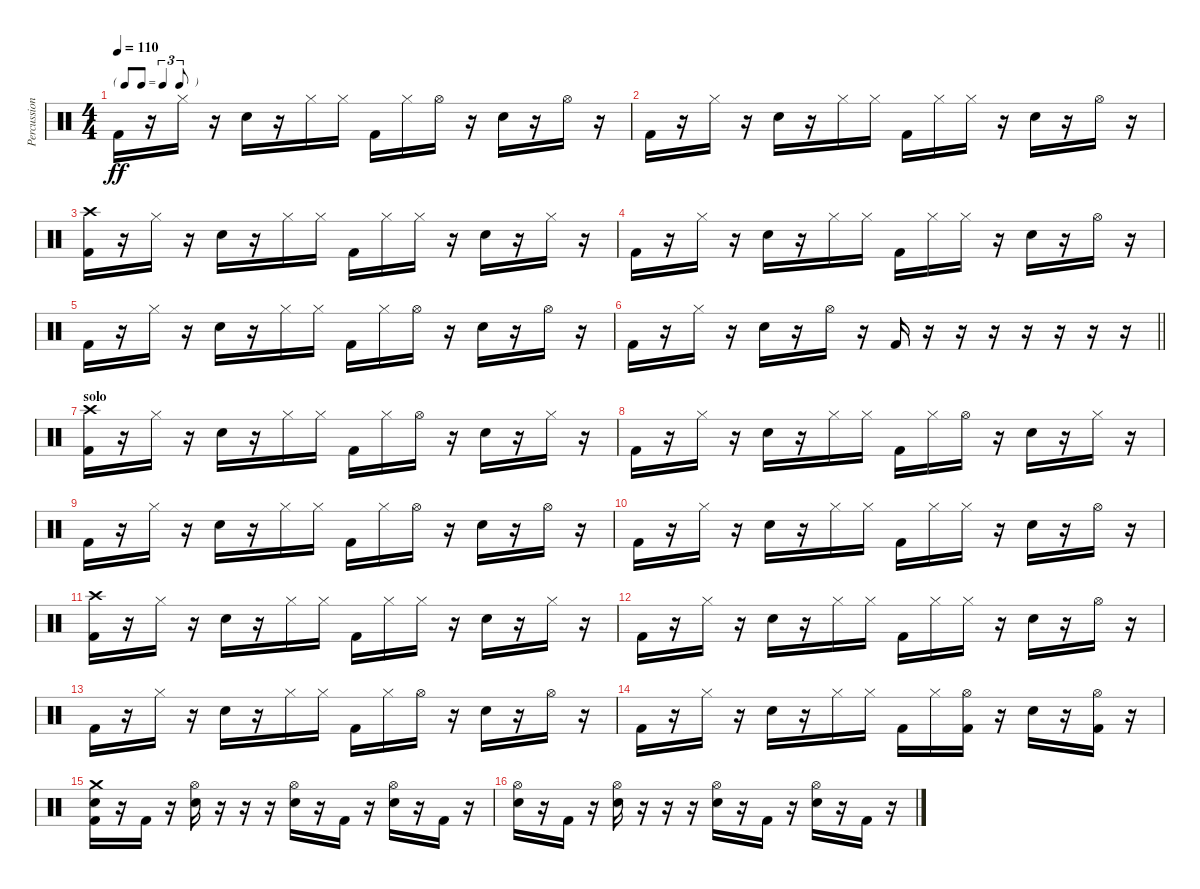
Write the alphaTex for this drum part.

\track ("Percussion" "Percussion") {instrument percussion}
\staff {score}
\articulation defaults
\ts (4 4)
\tf triplet8th
\tempo 110
\clef neutral
\ks c "Kick (hit) 2".16{dy ff}
r.16 "Hi-Hat (closed)".16 r.16 "Electric Snare (hit)".16 r.16 "Hi-Hat (closed)".16 "Hi-Hat (closed)".16 "Kick (hit) 2".16 "Hi-Hat (closed)".16 "Hi-Hat (open)".16 r.16 "Electric Snare (hit)".16 r.16 "Hi-Hat (open)".16 r.16 |
"Kick (hit) 2".16 r.16 "Hi-Hat (closed)".16 r.16 "Electric Snare (hit)".16 r.16 "Hi-Hat (closed)".16 "Hi-Hat (closed)".16 "Kick (hit) 2".16 "Hi-Hat (closed)".16 "Hi-Hat (closed)".16 r.16 "Electric Snare (hit)".16 r.16 "Hi-Hat (open)".16 r.16 |
("Crash high (hit)" "Kick (hit) 2").16 r.16 "Hi-Hat (closed)".16 r.16 "Electric Snare (hit)".16 r.16 "Hi-Hat (closed)".16 "Hi-Hat (closed)".16 "Kick (hit) 2".16 "Hi-Hat (closed)".16 "Hi-Hat (closed)".16 r.16 "Electric Snare (hit)".16 r.16 "Hi-Hat (closed)".16 r.16 |
"Kick (hit) 2".16 r.16 "Hi-Hat (closed)".16 r.16 "Electric Snare (hit)".16 r.16 "Hi-Hat (closed)".16 "Hi-Hat (closed)".16 "Kick (hit) 2".16 "Hi-Hat (closed)".16 "Hi-Hat (closed)".16 r.16 "Electric Snare (hit)".16 r.16 "Hi-Hat (open)".16 r.16 |
"Kick (hit) 2".16 r.16 "Hi-Hat (closed)".16 r.16 "Electric Snare (hit)".16 r.16 "Hi-Hat (closed)".16 "Hi-Hat (closed)".16 "Kick (hit) 2".16 "Hi-Hat (closed)".16 "Hi-Hat (open)".16 r.16 "Electric Snare (hit)".16 r.16 "Hi-Hat (open)".16 r.16 |
\barLineRight lightlight "Kick (hit) 2".16
r.16 "Hi-Hat (closed)".16 r.16 "Electric Snare (hit)".16 r.16 "Hi-Hat (open)".16 r.16 "Kick (hit) 2".16 r.16 r.16 r.16 r.16 r.16 r.16 r.16 |
\section ("" "solo")
("Crash high (hit)" "Kick (hit) 2").16 r.16 "Hi-Hat (closed)".16 r.16 "Electric Snare (hit)".16 r.16 "Hi-Hat (closed)".16 "Hi-Hat (closed)".16 "Kick (hit) 2".16 "Hi-Hat (closed)".16 "Hi-Hat (open)".16 r.16 "Electric Snare (hit)".16 r.16 "Hi-Hat (closed)".16 r.16 |
"Kick (hit) 2".16 r.16 "Hi-Hat (closed)".16 r.16 "Electric Snare (hit)".16 r.16 "Hi-Hat (closed)".16 "Hi-Hat (closed)".16 "Kick (hit) 2".16 "Hi-Hat (closed)".16 "Hi-Hat (open)".16 r.16 "Electric Snare (hit)".16 r.16 "Hi-Hat (closed)".16 r.16 |
"Kick (hit) 2".16 r.16 "Hi-Hat (closed)".16 r.16 "Electric Snare (hit)".16 r.16 "Hi-Hat (closed)".16 "Hi-Hat (closed)".16 "Kick (hit) 2".16 "Hi-Hat (closed)".16 "Hi-Hat (open)".16 r.16 "Electric Snare (hit)".16 r.16 "Hi-Hat (open)".16 r.16 |
"Kick (hit) 2".16 r.16 "Hi-Hat (closed)".16 r.16 "Electric Snare (hit)".16 r.16 "Hi-Hat (closed)".16 "Hi-Hat (closed)".16 "Kick (hit) 2".16 "Hi-Hat (closed)".16 "Hi-Hat (closed)".16 r.16 "Electric Snare (hit)".16 r.16 "Hi-Hat (open)".16 r.16 |
("Crash high (hit)" "Kick (hit) 2").16 r.16 "Hi-Hat (closed)".16 r.16 "Electric Snare (hit)".16 r.16 "Hi-Hat (closed)".16 "Hi-Hat (closed)".16 "Kick (hit) 2".16 "Hi-Hat (closed)".16 "Hi-Hat (closed)".16 r.16 "Electric Snare (hit)".16 r.16 "Hi-Hat (closed)".16 r.16 |
"Kick (hit) 2".16 r.16 "Hi-Hat (closed)".16 r.16 "Electric Snare (hit)".16 r.16 "Hi-Hat (closed)".16 "Hi-Hat (closed)".16 "Kick (hit) 2".16 "Hi-Hat (closed)".16 "Hi-Hat (closed)".16 r.16 "Electric Snare (hit)".16 r.16 "Hi-Hat (open)".16 r.16 |
"Kick (hit) 2".16 r.16 "Hi-Hat (closed)".16 r.16 "Electric Snare (hit)".16 r.16 "Hi-Hat (closed)".16 "Hi-Hat (closed)".16 "Kick (hit) 2".16 "Hi-Hat (closed)".16 "Hi-Hat (open)".16 r.16 "Electric Snare (hit)".16 r.16 "Hi-Hat (open)".16 r.16 |
"Kick (hit) 2".16 r.16 "Hi-Hat (closed)".16 r.16 "Electric Snare (hit)".16 r.16 "Hi-Hat (closed)".16 "Hi-Hat (closed)".16 "Kick (hit) 2".16 "Hi-Hat (closed)".16 ("Hi-Hat (open)" "Kick (hit) 2").16 r.16 "Electric Snare (hit)".16 r.16 ("Hi-Hat (open)" "Kick (hit) 2").16 r.16 |
("Crash medium (hit)" "Electric Snare (hit)" "Kick (hit) 2").16 r.16 "Kick (hit) 2".16 r.16 ("Hi-Hat (open)" "Electric Snare (hit)").16 r.16 r.16 r.16 ("Hi-Hat (open)" "Electric Snare (hit)").16 r.16 "Kick (hit) 2".16 r.16 ("Hi-Hat (open)" "Electric Snare (hit)").16 r.16 "Kick (hit) 2".16 r.16 |
("Hi-Hat (open)" "Electric Snare (hit)").16 r.16 "Kick (hit) 2".16 r.16 ("Hi-Hat (open)" "Electric Snare (hit)").16 r.16 r.16 r.16 ("Hi-Hat (open)" "Electric Snare (hit)").16 r.16 "Kick (hit) 2".16 r.16 ("Hi-Hat (open)" "Electric Snare (hit)").16 r.16 "Kick (hit) 2".16 r.16
